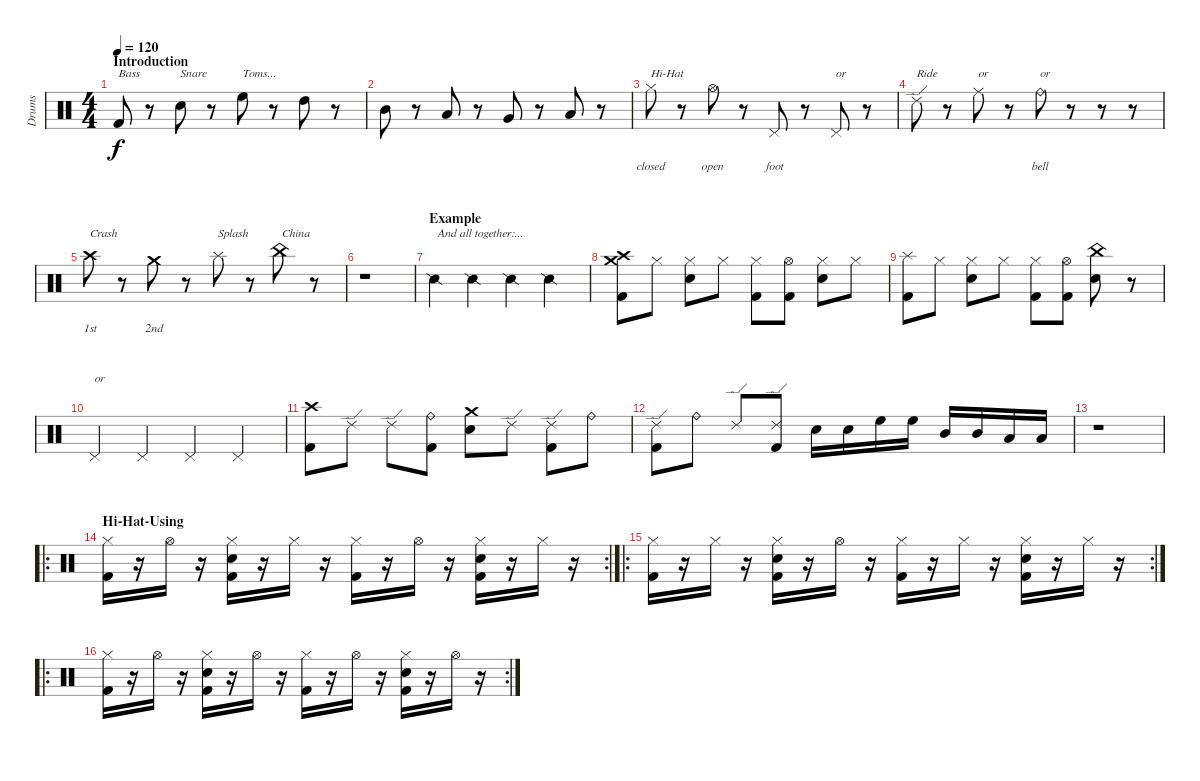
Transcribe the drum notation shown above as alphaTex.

\track ("Drums" "Drums") {instrument percussion}
\staff {score}
\articulation defaults
\ts (4 4)
\section ("" "Introduction")
\tempo 120
\clef neutral
\ks c "Kick (hit) 2".8{txt "Bass" dy f}
r.8 "Electric Snare (hit)".8{txt "Snare"} r.8 "High Floor Tom (hit)".8{txt "Toms..."} r.8 "High Tom (hit)".8 r.8 |
"Mid Tom (hit)".8 r.8 "Low Tom (hit)".8 r.8 "Very Low Tom (hit)".8 r.8 "Low Floor Tom (hit)".8 r.8 |
"Hi-Hat (closed)".8{txt "Hi-Hat" lyrics (0 "closed") lyrics (1 "") lyrics (2 "") lyrics (3 "") lyrics (4 "")} r.8 "Hi-Hat (open)".8{lyrics (0 "open") lyrics (1 "") lyrics (2 "") lyrics (3 "") lyrics (4 "")} r.8 "Pedal Hi-Hat (hit)".8{lyrics (0 "foot") lyrics (1 "") lyrics (2 "") lyrics (3 "") lyrics (4 "")} r.8 "Pedal Hi-Hat (hit)".8{txt "or" lyrics (0 "") lyrics (1 "") lyrics (2 "") lyrics (3 "") lyrics (4 "")} r.8 |
"Ride (edge) 2".8{txt "Ride" lyrics (0 "") lyrics (1 "") lyrics (2 "") lyrics (3 "") lyrics (4 "")} r.8 "Ride (middle)".8{txt "or" lyrics (0 "") lyrics (1 "") lyrics (2 "") lyrics (3 "") lyrics (4 "")} r.8 "Ride (bell)".8{txt "or" lyrics (0 "bell") lyrics (1 "") lyrics (2 "") lyrics (3 "") lyrics (4 "")} r.8 r.8 r.8 |
"Crash high (hit)".8{txt "Crash" lyrics (0 "1st") lyrics (1 "") lyrics (2 "") lyrics (3 "") lyrics (4 "")} r.8 "Crash medium (hit)".8{lyrics (0 "2nd") lyrics (1 "") lyrics (2 "") lyrics (3 "") lyrics (4 "")} r.8 "Splash (hit)".8{txt "Splash" lyrics (0 "") lyrics (1 "") lyrics (2 "") lyrics (3 "") lyrics (4 "")} r.8 "China (hit)".8{txt "China" lyrics (0 "") lyrics (1 "") lyrics (2 "") lyrics (3 "") lyrics (4 "")} r.8 |
r.1 |
\section ("" "Example")
"Snare (side stick) 2".4{txt "And all together:..." lyrics (0 "") lyrics (1 "") lyrics (2 "") lyrics (3 "") lyrics (4 "")} "Snare (side stick) 2".4{lyrics (0 "") lyrics (1 "") lyrics (2 "") lyrics (3 "") lyrics (4 "")} "Snare (side stick) 2".4{lyrics (0 "") lyrics (1 "") lyrics (2 "") lyrics (3 "") lyrics (4 "")} "Snare (side stick) 2".4{lyrics (0 "") lyrics (1 "") lyrics (2 "") lyrics (3 "") lyrics (4 "")} |
("Crash high (hit)" "Crash medium (hit)" "Kick (hit) 2").8{lyrics (0 "") lyrics (1 "") lyrics (2 "") lyrics (3 "") lyrics (4 "")} "Hi-Hat (closed)".8{lyrics (0 "") lyrics (1 "") lyrics (2 "") lyrics (3 "") lyrics (4 "")} ("Hi-Hat (closed)" "Electric Snare (hit)").8{lyrics (0 "") lyrics (1 "") lyrics (2 "") lyrics (3 "") lyrics (4 "")} "Hi-Hat (closed)".8{lyrics (0 "") lyrics (1 "") lyrics (2 "") lyrics (3 "") lyrics (4 "")} ("Hi-Hat (closed)" "Kick (hit) 2").8{lyrics (0 "") lyrics (1 "") lyrics (2 "") lyrics (3 "") lyrics (4 "")} ("Hi-Hat (open)" "Kick (hit) 2").8{lyrics (0 "") lyrics (1 "") lyrics (2 "") lyrics (3 "") lyrics (4 "")} ("Hi-Hat (closed)" "Electric Snare (hit)").8{lyrics (0 "") lyrics (1 "") lyrics (2 "") lyrics (3 "") lyrics (4 "")} "Hi-Hat (closed)".8{lyrics (0 "") lyrics (1 "") lyrics (2 "") lyrics (3 "") lyrics (4 "")} |
("Splash (hit)" "Kick (hit) 2").8{lyrics (0 "") lyrics (1 "") lyrics (2 "") lyrics (3 "") lyrics (4 "")} "Hi-Hat (closed)".8{lyrics (0 "") lyrics (1 "") lyrics (2 "") lyrics (3 "") lyrics (4 "")} ("Hi-Hat (closed)" "Electric Snare (hit)").8{lyrics (0 "") lyrics (1 "") lyrics (2 "") lyrics (3 "") lyrics (4 "")} "Hi-Hat (closed)".8{lyrics (0 "") lyrics (1 "") lyrics (2 "") lyrics (3 "") lyrics (4 "")} ("Hi-Hat (closed)" "Kick (hit) 2").8{lyrics (0 "") lyrics (1 "") lyrics (2 "") lyrics (3 "") lyrics (4 "")} ("Hi-Hat (open)" "Kick (hit) 2").8{lyrics (0 "") lyrics (1 "") lyrics (2 "") lyrics (3 "") lyrics (4 "")} ("China (hit)" "Electric Snare (hit)").8{lyrics (0 "") lyrics (1 "") lyrics (2 "") lyrics (3 "") lyrics (4 "")} r.8 |
"Pedal Hi-Hat (hit)".4{txt "or" lyrics (0 "") lyrics (1 "") lyrics (2 "") lyrics (3 "") lyrics (4 "")} "Pedal Hi-Hat (hit)".4{lyrics (0 "") lyrics (1 "") lyrics (2 "") lyrics (3 "") lyrics (4 "")} "Pedal Hi-Hat (hit)".4{lyrics (0 "") lyrics (1 "") lyrics (2 "") lyrics (3 "") lyrics (4 "")} "Pedal Hi-Hat (hit)".4{lyrics (0 "") lyrics (1 "") lyrics (2 "") lyrics (3 "") lyrics (4 "")} |
("Crash high (hit)" "Kick (hit) 2").8{lyrics (0 "") lyrics (1 "") lyrics (2 "") lyrics (3 "") lyrics (4 "")} "Ride (edge) 2".8{lyrics (0 "") lyrics (1 "") lyrics (2 "") lyrics (3 "") lyrics (4 "")} "Ride (edge) 2".8{lyrics (0 "") lyrics (1 "") lyrics (2 "") lyrics (3 "") lyrics (4 "")} ("Ride (bell)" "Kick (hit) 2").8{lyrics (0 "") lyrics (1 "") lyrics (2 "") lyrics (3 "") lyrics (4 "")} ("Crash medium (hit)" "Electric Snare (hit)").8{lyrics (0 "") lyrics (1 "") lyrics (2 "") lyrics (3 "") lyrics (4 "")} "Ride (edge) 2".8{lyrics (0 "") lyrics (1 "") lyrics (2 "") lyrics (3 "") lyrics (4 "")} ("Ride (edge) 2" "Kick (hit) 2").8{lyrics (0 "") lyrics (1 "") lyrics (2 "") lyrics (3 "") lyrics (4 "")} "Ride (bell)".8{lyrics (0 "") lyrics (1 "") lyrics (2 "") lyrics (3 "") lyrics (4 "")} |
("Ride (edge) 2" "Kick (hit) 2").8{lyrics (0 "") lyrics (1 "") lyrics (2 "") lyrics (3 "") lyrics (4 "")} "Ride (bell)".8{lyrics (0 "") lyrics (1 "") lyrics (2 "") lyrics (3 "") lyrics (4 "")} "Ride (edge) 2".8{lyrics (0 "") lyrics (1 "") lyrics (2 "") lyrics (3 "") lyrics (4 "")} ("Ride (edge) 2" "Kick (hit) 2").8{lyrics (0 "") lyrics (1 "") lyrics (2 "") lyrics (3 "") lyrics (4 "")} "Electric Snare (hit)".16{lyrics (0 "") lyrics (1 "") lyrics (2 "") lyrics (3 "") lyrics (4 "")} "Electric Snare (hit)".16{lyrics (0 "") lyrics (1 "") lyrics (2 "") lyrics (3 "") lyrics (4 "")} "High Floor Tom (hit)".16{lyrics (0 "") lyrics (1 "") lyrics (2 "") lyrics (3 "") lyrics (4 "")} "High Floor Tom (hit)".16{lyrics (0 "") lyrics (1 "") lyrics (2 "") lyrics (3 "") lyrics (4 "")} "Mid Tom (hit)".16{lyrics (0 "") lyrics (1 "") lyrics (2 "") lyrics (3 "") lyrics (4 "")} "Mid Tom (hit)".16{lyrics (0 "") lyrics (1 "") lyrics (2 "") lyrics (3 "") lyrics (4 "")} "Low Tom (hit)".16{lyrics (0 "") lyrics (1 "") lyrics (2 "") lyrics (3 "") lyrics (4 "")} "Low Tom (hit)".16{lyrics (0 "") lyrics (1 "") lyrics (2 "") lyrics (3 "") lyrics (4 "")} |
r.1 |
\ro
\rc 2
\section ("" "Hi-Hat-Using")
("Hi-Hat (closed)" "Kick (hit) 2").16{lyrics (0 "") lyrics (1 "") lyrics (2 "") lyrics (3 "") lyrics (4 "")} r.16 "Hi-Hat (open)".16{lyrics (0 "") lyrics (1 "") lyrics (2 "") lyrics (3 "") lyrics (4 "")} r.16 ("Hi-Hat (closed)" "Electric Snare (hit)" "Kick (hit) 2").16{lyrics (0 "") lyrics (1 "") lyrics (2 "") lyrics (3 "") lyrics (4 "")} r.16 "Hi-Hat (closed)".16{lyrics (0 "") lyrics (1 "") lyrics (2 "") lyrics (3 "") lyrics (4 "")} r.16 ("Hi-Hat (closed)" "Kick (hit) 2").16{lyrics (0 "") lyrics (1 "") lyrics (2 "") lyrics (3 "") lyrics (4 "")} r.16 "Hi-Hat (open)".16{lyrics (0 "") lyrics (1 "") lyrics (2 "") lyrics (3 "") lyrics (4 "")} r.16 ("Hi-Hat (closed)" "Electric Snare (hit)" "Kick (hit) 2").16{lyrics (0 "") lyrics (1 "") lyrics (2 "") lyrics (3 "") lyrics (4 "")} r.16 "Hi-Hat (closed)".16{lyrics (0 "") lyrics (1 "") lyrics (2 "") lyrics (3 "") lyrics (4 "")} r.16 |
\ro
\rc 2
("Hi-Hat (closed)" "Kick (hit) 2").16{lyrics (0 "") lyrics (1 "") lyrics (2 "") lyrics (3 "") lyrics (4 "")} r.16 "Hi-Hat (closed)".16{lyrics (0 "") lyrics (1 "") lyrics (2 "") lyrics (3 "") lyrics (4 "")} r.16 ("Hi-Hat (closed)" "Electric Snare (hit)" "Kick (hit) 2").16{lyrics (0 "") lyrics (1 "") lyrics (2 "") lyrics (3 "") lyrics (4 "")} r.16 "Hi-Hat (open)".16{lyrics (0 "") lyrics (1 "") lyrics (2 "") lyrics (3 "") lyrics (4 "")} r.16 ("Hi-Hat (closed)" "Kick (hit) 2").16{lyrics (0 "") lyrics (1 "") lyrics (2 "") lyrics (3 "") lyrics (4 "")} r.16 "Hi-Hat (closed)".16{lyrics (0 "") lyrics (1 "") lyrics (2 "") lyrics (3 "") lyrics (4 "")} r.16 ("Hi-Hat (closed)" "Electric Snare (hit)" "Kick (hit) 2").16{lyrics (0 "") lyrics (1 "") lyrics (2 "") lyrics (3 "") lyrics (4 "")} r.16 "Hi-Hat (closed)".16{lyrics (0 "") lyrics (1 "") lyrics (2 "") lyrics (3 "") lyrics (4 "")} r.16 |
\ro
\rc 2
("Hi-Hat (closed)" "Kick (hit) 2").16{lyrics (0 "") lyrics (1 "") lyrics (2 "") lyrics (3 "") lyrics (4 "")} r.16 "Hi-Hat (open)".16{lyrics (0 "") lyrics (1 "") lyrics (2 "") lyrics (3 "") lyrics (4 "")} r.16 ("Hi-Hat (closed)" "Electric Snare (hit)" "Kick (hit) 2").16{lyrics (0 "") lyrics (1 "") lyrics (2 "") lyrics (3 "") lyrics (4 "")} r.16 "Hi-Hat (open)".16{lyrics (0 "") lyrics (1 "") lyrics (2 "") lyrics (3 "") lyrics (4 "")} r.16 ("Hi-Hat (closed)" "Kick (hit) 2").16{lyrics (0 "") lyrics (1 "") lyrics (2 "") lyrics (3 "") lyrics (4 "")} r.16 "Hi-Hat (open)".16{lyrics (0 "") lyrics (1 "") lyrics (2 "") lyrics (3 "") lyrics (4 "")} r.16 ("Hi-Hat (closed)" "Electric Snare (hit)" "Kick (hit) 2").16{lyrics (0 "") lyrics (1 "") lyrics (2 "") lyrics (3 "") lyrics (4 "")} r.16 "Hi-Hat (open)".16{lyrics (0 "") lyrics (1 "") lyrics (2 "") lyrics (3 "") lyrics (4 "")} r.16
